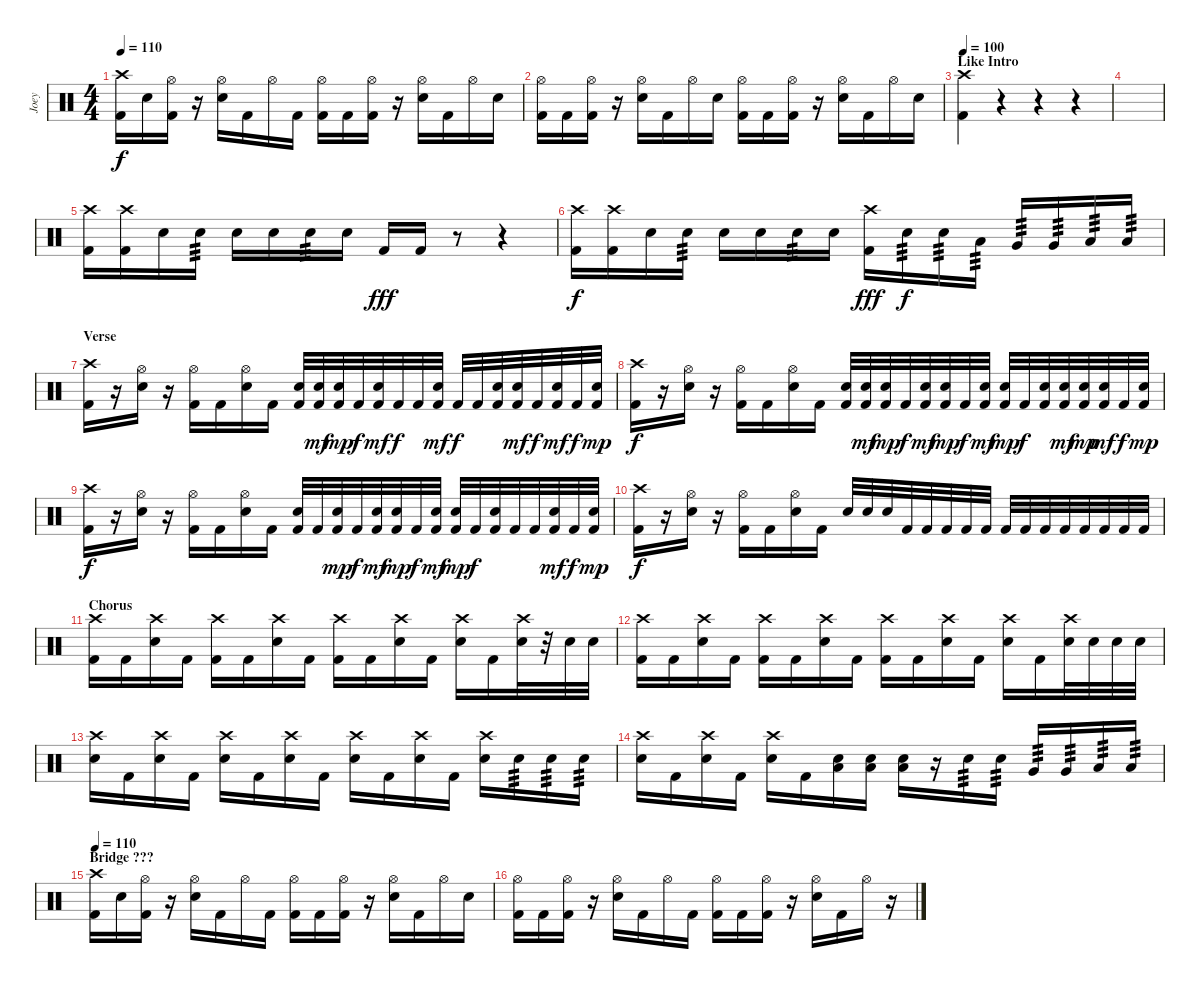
\track ("Joey" "Joey") {instrument percussion}
\staff {score}
\articulation defaults
\ts (4 4)
\tempo 110
\clef neutral
\ks c
("Crash high (hit)" "Kick (hit) 2").16{dy f} "Electric Snare (hit)".16 ("Hi-Hat (open)" "Kick (hit) 2").16 r.16 ("Hi-Hat (open)" "Electric Snare (hit)").16 "Kick (hit) 2".16 "Hi-Hat (open)".16 "Kick (hit) 2".16 ("Hi-Hat (open)" "Kick (hit) 2").16 "Kick (hit) 2".16 ("Hi-Hat (open)" "Kick (hit) 2").16 r.16 ("Hi-Hat (open)" "Electric Snare (hit)").16 "Kick (hit) 2".16 "Hi-Hat (open)".16 "Electric Snare (hit)".16 |
("Hi-Hat (open)" "Kick (hit) 2").16 "Kick (hit) 2".16 ("Hi-Hat (open)" "Kick (hit) 2").16 r.16 ("Hi-Hat (open)" "Electric Snare (hit)").16 "Kick (hit) 2".16 "Hi-Hat (open)".16 "Electric Snare (hit)".16 ("Hi-Hat (open)" "Kick (hit) 2").16 "Kick (hit) 2".16 ("Hi-Hat (open)" "Kick (hit) 2").16 r.16 ("Hi-Hat (open)" "Electric Snare (hit)").16 "Kick (hit) 2".16 "Hi-Hat (open)".16 "Electric Snare (hit)".16 |
\section ("" "Like Intro")
\tempo 100
("Crash high (hit)" "Kick (hit) 2").4 r.4 r.4 r.4 |
|
("Crash high (hit)" "Kick (hit) 2").16 ("Crash high (hit)" "Kick (hit) 2").16 "Electric Snare (hit)".16 "Electric Snare (hit)".16{tp 3} "Electric Snare (hit)".16 "Electric Snare (hit)".16 "Electric Snare (hit)".16{tp 3} "Electric Snare (hit)".16 "Kick (hit) 2".16{dy fff} "Kick (hit) 2".16 r.8 r.4 |
("Crash high (hit)" "Kick (hit) 2").16{dy f} ("Crash high (hit)" "Kick (hit) 2").16 "Electric Snare (hit)".16 "Electric Snare (hit)".16{tp 3} "Electric Snare (hit)".16 "Electric Snare (hit)".16 "Electric Snare (hit)".16{tp 3} "Electric Snare (hit)".16 ("Crash high (hit)" "Kick (hit) 2").16{dy fff} "Electric Snare (hit)".16{tp 3 dy f} "Electric Snare (hit)".16{tp 3} "Low Tom (hit)".16{tp 3} "Very Low Tom (hit)".16{tp 3} "Very Low Tom (hit)".16{tp 3} "Low Floor Tom (hit)".16{tp 3} "Low Floor Tom (hit)".16{tp 3} |
\section ("" "Verse")
("Crash high (hit)" "Kick (hit) 2").16 r.16 ("Hi-Hat (open)" "Electric Snare (hit)").16 r.16 ("Hi-Hat (open)" "Kick (hit) 2").16 "Kick (hit) 2".16 ("Hi-Hat (open)" "Electric Snare (hit)").16 "Kick (hit) 2".16 ("Electric Snare (hit)" "Kick (hit) 2").32 ("Electric Snare (hit)" "Kick (hit) 2").32{dy mf} ("Electric Snare (hit)" "Kick (hit) 2").32{dy mp} "Kick (hit) 2".32{dy f} ("Electric Snare (hit)" "Kick (hit) 2").32{dy mf} "Kick (hit) 2".32{dy f} "Kick (hit) 2".32 ("Electric Snare (hit)" "Kick (hit) 2").32{dy mf} "Kick (hit) 2".32{dy f} "Kick (hit) 2".32 ("Electric Snare (hit)" "Kick (hit) 2").32 ("Electric Snare (hit)" "Kick (hit) 2").32{dy mf} "Kick (hit) 2".32{dy f} ("Electric Snare (hit)" "Kick (hit) 2").32{dy mf} "Kick (hit) 2".32{dy f} ("Electric Snare (hit)" "Kick (hit) 2").32{dy mp} |
("Crash high (hit)" "Kick (hit) 2").16{dy f} r.16 ("Hi-Hat (open)" "Electric Snare (hit)").16 r.16 ("Hi-Hat (open)" "Kick (hit) 2").16 "Kick (hit) 2".16 ("Hi-Hat (open)" "Electric Snare (hit)").16 "Kick (hit) 2".16 ("Electric Snare (hit)" "Kick (hit) 2").32 ("Electric Snare (hit)" "Kick (hit) 2").32{dy mf} ("Electric Snare (hit)" "Kick (hit) 2").32{dy mp} "Kick (hit) 2".32{dy f} ("Electric Snare (hit)" "Kick (hit) 2").32{dy mf} ("Electric Snare (hit)" "Kick (hit) 2").32{dy mp} "Kick (hit) 2".32{dy f} ("Electric Snare (hit)" "Kick (hit) 2").32{dy mf} ("Electric Snare (hit)" "Kick (hit) 2").32{dy mp} "Kick (hit) 2".32{dy f} ("Electric Snare (hit)" "Kick (hit) 2").32 ("Electric Snare (hit)" "Kick (hit) 2").32{dy mf} ("Electric Snare (hit)" "Kick (hit) 2").32{dy mp} ("Electric Snare (hit)" "Kick (hit) 2").32{dy mf} "Kick (hit) 2".32{dy f} ("Electric Snare (hit)" "Kick (hit) 2").32{dy mp} |
("Crash high (hit)" "Kick (hit) 2").16{dy f} r.16 ("Hi-Hat (open)" "Electric Snare (hit)").16 r.16 ("Hi-Hat (open)" "Kick (hit) 2").16 "Kick (hit) 2".16 ("Hi-Hat (open)" "Electric Snare (hit)").16 "Kick (hit) 2".16 ("Electric Snare (hit)" "Kick (hit) 2").32 "Kick (hit) 2".32 ("Electric Snare (hit)" "Kick (hit) 2").32{dy mp} "Kick (hit) 2".32{dy f} ("Electric Snare (hit)" "Kick (hit) 2").32{dy mf} ("Electric Snare (hit)" "Kick (hit) 2").32{dy mp} "Kick (hit) 2".32{dy f} ("Electric Snare (hit)" "Kick (hit) 2").32{dy mf} ("Electric Snare (hit)" "Kick (hit) 2").32{dy mp} "Kick (hit) 2".32{dy f} ("Electric Snare (hit)" "Kick (hit) 2").32 "Kick (hit) 2".32 "Kick (hit) 2".32 ("Electric Snare (hit)" "Kick (hit) 2").32{dy mf} "Kick (hit) 2".32{dy f} ("Electric Snare (hit)" "Kick (hit) 2").32{dy mp} |
("Crash high (hit)" "Kick (hit) 2").16{dy f} r.16 ("Hi-Hat (open)" "Electric Snare (hit)").16 r.16 ("Hi-Hat (open)" "Kick (hit) 2").16 "Kick (hit) 2".16 ("Hi-Hat (open)" "Electric Snare (hit)").16 "Kick (hit) 2".16 "Electric Snare (hit)".32 "Electric Snare (hit)".32 "Electric Snare (hit)".32 "Kick (hit) 2".32 "Kick (hit) 2".32 "Kick (hit) 2".32 "Kick (hit) 2".32 "Kick (hit) 2".32 "Kick (hit) 2".32 "Kick (hit) 2".32 "Kick (hit) 2".32 "Kick (hit) 2".32 "Kick (hit) 2".32 "Kick (hit) 2".32 "Kick (hit) 2".32 "Kick (hit) 2".32 |
\section ("" "Chorus")
("Crash high (hit)" "Kick (hit) 2").16 "Kick (hit) 2".16 ("Crash high (hit)" "Electric Snare (hit)").16 "Kick (hit) 2".16 ("Crash high (hit)" "Kick (hit) 2").16 "Kick (hit) 2".16 ("Crash high (hit)" "Electric Snare (hit)").16 "Kick (hit) 2".16 ("Crash high (hit)" "Kick (hit) 2").16 "Kick (hit) 2".16 ("Crash high (hit)" "Electric Snare (hit)").16 "Kick (hit) 2".16 ("Crash high (hit)" "Electric Snare (hit)").16 "Kick (hit) 2".16 ("Crash high (hit)" "Electric Snare (hit)").32 r.32 "Electric Snare (hit)".32 "Electric Snare (hit)".32 |
("Crash high (hit)" "Kick (hit) 2").16 "Kick (hit) 2".16 ("Crash high (hit)" "Electric Snare (hit)").16 "Kick (hit) 2".16 ("Crash high (hit)" "Kick (hit) 2").16 "Kick (hit) 2".16 ("Crash high (hit)" "Electric Snare (hit)").16 "Kick (hit) 2".16 ("Crash high (hit)" "Kick (hit) 2").16 "Kick (hit) 2".16 ("Crash high (hit)" "Electric Snare (hit)").16 "Kick (hit) 2".16 ("Crash high (hit)" "Electric Snare (hit)").16 "Kick (hit) 2".16 ("Crash high (hit)" "Electric Snare (hit)").32 "Electric Snare (hit)".32 "Electric Snare (hit)".32 "Electric Snare (hit)".32 |
("Crash high (hit)" "Electric Snare (hit)").16 "Kick (hit) 2".16 ("Crash high (hit)" "Electric Snare (hit)").16 "Kick (hit) 2".16 ("Crash high (hit)" "Electric Snare (hit)").16 "Kick (hit) 2".16 ("Crash high (hit)" "Electric Snare (hit)").16 "Kick (hit) 2".16 ("Crash high (hit)" "Electric Snare (hit)").16 "Kick (hit) 2".16 ("Crash high (hit)" "Electric Snare (hit)").16 "Kick (hit) 2".16 ("Crash high (hit)" "Electric Snare (hit)").16 "Electric Snare (hit)".16{tp 3} "Electric Snare (hit)".16{tp 3} "Electric Snare (hit)".16{tp 3} |
("Crash high (hit)" "Electric Snare (hit)").16 "Kick (hit) 2".16 ("Crash high (hit)" "Electric Snare (hit)").16 "Kick (hit) 2".16 ("Crash high (hit)" "Electric Snare (hit)").16 "Kick (hit) 2".16 ("Low Floor Tom (hit)" "Electric Snare (hit)").16 ("Low Floor Tom (hit)" "Electric Snare (hit)").16 ("Low Floor Tom (hit)" "Electric Snare (hit)").16 r.16 "Electric Snare (hit)".16{tp 3} "Electric Snare (hit)".16{tp 3} "Very Low Tom (hit)".16{tp 3} "Very Low Tom (hit)".16{tp 3} "Low Floor Tom (hit)".16{tp 3} "Low Floor Tom (hit)".16{tp 3} |
\section ("" "Bridge ???")
\tempo 110
("Crash high (hit)" "Kick (hit) 2").16 "Electric Snare (hit)".16 ("Hi-Hat (open)" "Kick (hit) 2").16 r.16 ("Hi-Hat (open)" "Electric Snare (hit)").16 "Kick (hit) 2".16 "Hi-Hat (open)".16 "Kick (hit) 2".16 ("Hi-Hat (open)" "Kick (hit) 2").16 "Kick (hit) 2".16 ("Hi-Hat (open)" "Kick (hit) 2").16 r.16 ("Hi-Hat (open)" "Electric Snare (hit)").16 "Kick (hit) 2".16 "Hi-Hat (open)".16 "Electric Snare (hit)".16 |
("Hi-Hat (open)" "Kick (hit) 2").16 "Kick (hit) 2".16 ("Hi-Hat (open)" "Kick (hit) 2").16 r.16 ("Hi-Hat (open)" "Electric Snare (hit)").16 "Kick (hit) 2".16 "Hi-Hat (open)".16 "Kick (hit) 2".16 ("Hi-Hat (open)" "Kick (hit) 2").16 "Kick (hit) 2".16 ("Hi-Hat (open)" "Kick (hit) 2").16 r.16 ("Hi-Hat (open)" "Electric Snare (hit)").16 "Kick (hit) 2".16 "Hi-Hat (open)".16 r.16
